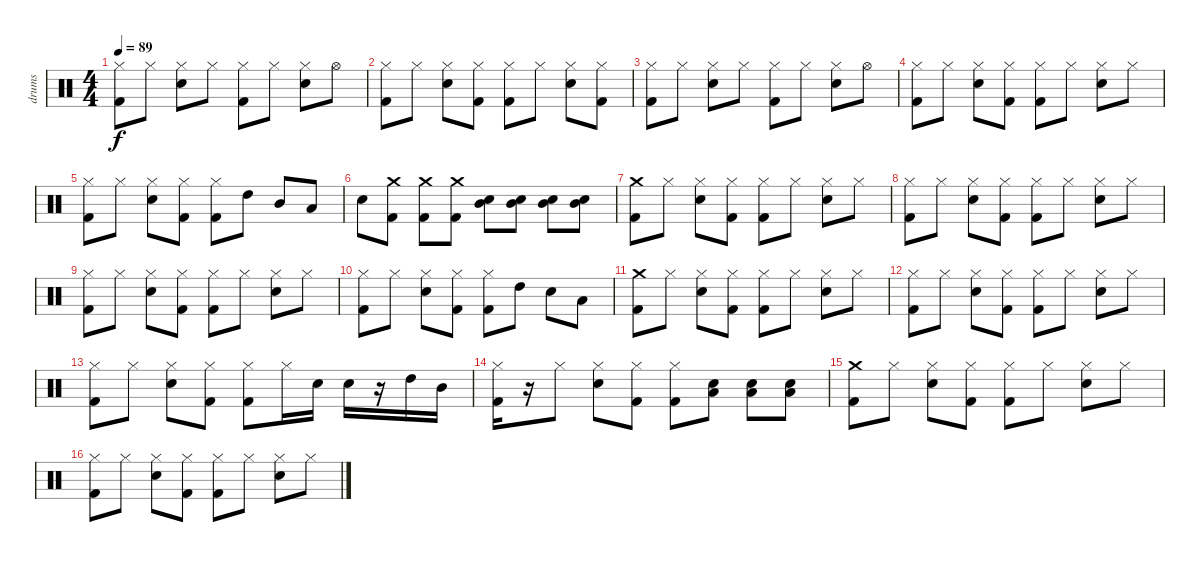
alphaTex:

\track ("drums" "drums") {instrument percussion}
\staff {score}
\articulation defaults
\ts (4 4)
\tempo 89
\clef neutral
\ks c
("Kick (hit) 2" "Hi-Hat (closed)").8{dy f} "Hi-Hat (closed)".8 ("Snare (hit) 2" "Hi-Hat (closed)").8 "Hi-Hat (closed)".8 ("Kick (hit) 2" "Hi-Hat (closed)").8 "Hi-Hat (closed)".8 ("Snare (hit) 2" "Hi-Hat (closed)").8 "Hi-Hat (open)".8 |
("Kick (hit) 2" "Hi-Hat (closed)").8 "Hi-Hat (closed)".8 ("Snare (hit) 2" "Hi-Hat (closed)").8 ("Kick (hit) 2" "Hi-Hat (closed)").8 ("Kick (hit) 2" "Hi-Hat (closed)").8 "Hi-Hat (closed)".8 ("Snare (hit) 2" "Hi-Hat (closed)").8 ("Kick (hit) 2" "Hi-Hat (closed)").8 |
("Kick (hit) 2" "Hi-Hat (closed)").8 "Hi-Hat (closed)".8 ("Snare (hit) 2" "Hi-Hat (closed)").8 "Hi-Hat (closed)".8 ("Kick (hit) 2" "Hi-Hat (closed)").8 "Hi-Hat (closed)".8 ("Snare (hit) 2" "Hi-Hat (closed)").8 "Hi-Hat (open)".8 |
("Kick (hit) 2" "Hi-Hat (closed)").8 "Hi-Hat (closed)".8 ("Snare (hit) 2" "Hi-Hat (closed)").8 ("Kick (hit) 2" "Hi-Hat (closed)").8 ("Kick (hit) 2" "Hi-Hat (closed)").8 "Hi-Hat (closed)".8 ("Snare (hit) 2" "Hi-Hat (closed)").8 "Hi-Hat (closed)".8 |
("Kick (hit) 2" "Hi-Hat (closed)").8 "Hi-Hat (closed)".8 ("Snare (hit) 2" "Hi-Hat (closed)").8 ("Kick (hit) 2" "Hi-Hat (closed)").8 ("Kick (hit) 2" "Hi-Hat (closed)").8 "High Tom (hit)".8 "Mid Tom (hit)".8 "Low Tom (hit)".8 |
"Snare (hit) 2".8 ("Crash medium (hit)" "Kick (hit) 2").8 ("Crash medium (hit)" "Kick (hit) 2").8 ("Crash medium (hit)" "Kick (hit) 2").8 ("Mid Tom (hit)" "Snare (hit) 2").8 ("Mid Tom (hit)" "Snare (hit) 2").8 ("Mid Tom (hit)" "Snare (hit) 2").8 ("Mid Tom (hit)" "Snare (hit) 2").8 |
("Kick (hit) 2" "Crash medium (hit)").8 "Hi-Hat (closed)".8 ("Snare (hit) 2" "Hi-Hat (closed)").8 ("Kick (hit) 2" "Hi-Hat (closed)").8 ("Kick (hit) 2" "Hi-Hat (closed)").8 "Hi-Hat (closed)".8 ("Snare (hit) 2" "Hi-Hat (closed)").8 "Hi-Hat (closed)".8 |
("Kick (hit) 2" "Hi-Hat (closed)").8 "Hi-Hat (closed)".8 ("Snare (hit) 2" "Hi-Hat (closed)").8 ("Kick (hit) 2" "Hi-Hat (closed)").8 ("Kick (hit) 2" "Hi-Hat (closed)").8 "Hi-Hat (closed)".8 ("Snare (hit) 2" "Hi-Hat (closed)").8 "Hi-Hat (closed)".8 |
("Kick (hit) 2" "Hi-Hat (closed)").8 "Hi-Hat (closed)".8 ("Snare (hit) 2" "Hi-Hat (closed)").8 ("Kick (hit) 2" "Hi-Hat (closed)").8 ("Kick (hit) 2" "Hi-Hat (closed)").8 "Hi-Hat (closed)".8 ("Snare (hit) 2" "Hi-Hat (closed)").8 "Hi-Hat (closed)".8 |
("Kick (hit) 2" "Hi-Hat (closed)").8 "Hi-Hat (closed)".8 ("Snare (hit) 2" "Hi-Hat (closed)").8 ("Kick (hit) 2" "Hi-Hat (closed)").8 ("Kick (hit) 2" "Hi-Hat (closed)").8 "High Tom (hit)".8 "Snare (hit) 2".8 "Low Tom (hit)".8 |
("Kick (hit) 2" "Crash medium (hit)").8 "Hi-Hat (closed)".8 ("Snare (hit) 2" "Hi-Hat (closed)").8 ("Kick (hit) 2" "Hi-Hat (closed)").8 ("Kick (hit) 2" "Hi-Hat (closed)").8 "Hi-Hat (closed)".8 ("Snare (hit) 2" "Hi-Hat (closed)").8 "Hi-Hat (closed)".8 |
("Kick (hit) 2" "Hi-Hat (closed)").8 "Hi-Hat (closed)".8 ("Snare (hit) 2" "Hi-Hat (closed)").8 ("Kick (hit) 2" "Hi-Hat (closed)").8 ("Kick (hit) 2" "Hi-Hat (closed)").8 "Hi-Hat (closed)".8 ("Snare (hit) 2" "Hi-Hat (closed)").8 "Hi-Hat (closed)".8 |
("Kick (hit) 2" "Hi-Hat (closed)").8 "Hi-Hat (closed)".8 ("Snare (hit) 2" "Hi-Hat (closed)").8 ("Kick (hit) 2" "Hi-Hat (closed)").8 ("Kick (hit) 2" "Hi-Hat (closed)").8 "Hi-Hat (closed)".16 "Snare (hit) 2".16 "Snare (hit) 2".16 r.16 "High Tom (hit)".16 "Mid Tom (hit)".16 |
("Kick (hit) 2" "Hi-Hat (closed)").16 r.16 "Hi-Hat (closed)".8 ("Snare (hit) 2" "Hi-Hat (closed)").8 ("Kick (hit) 2" "Hi-Hat (closed)").8 ("Kick (hit) 2" "Hi-Hat (closed)").8 ("Low Tom (hit)" "Snare (hit) 2").8 ("Low Tom (hit)" "Snare (hit) 2").8 ("Low Tom (hit)" "Snare (hit) 2").8 |
("Kick (hit) 2" "Crash medium (hit)").8 "Hi-Hat (closed)".8 ("Snare (hit) 2" "Hi-Hat (closed)").8 ("Kick (hit) 2" "Hi-Hat (closed)").8 ("Kick (hit) 2" "Hi-Hat (closed)").8 "Hi-Hat (closed)".8 ("Snare (hit) 2" "Hi-Hat (closed)").8 "Hi-Hat (closed)".8 |
("Kick (hit) 2" "Hi-Hat (closed)").8 "Hi-Hat (closed)".8 ("Snare (hit) 2" "Hi-Hat (closed)").8 ("Kick (hit) 2" "Hi-Hat (closed)").8 ("Kick (hit) 2" "Hi-Hat (closed)").8 "Hi-Hat (closed)".8 ("Snare (hit) 2" "Hi-Hat (closed)").8 "Hi-Hat (closed)".8
